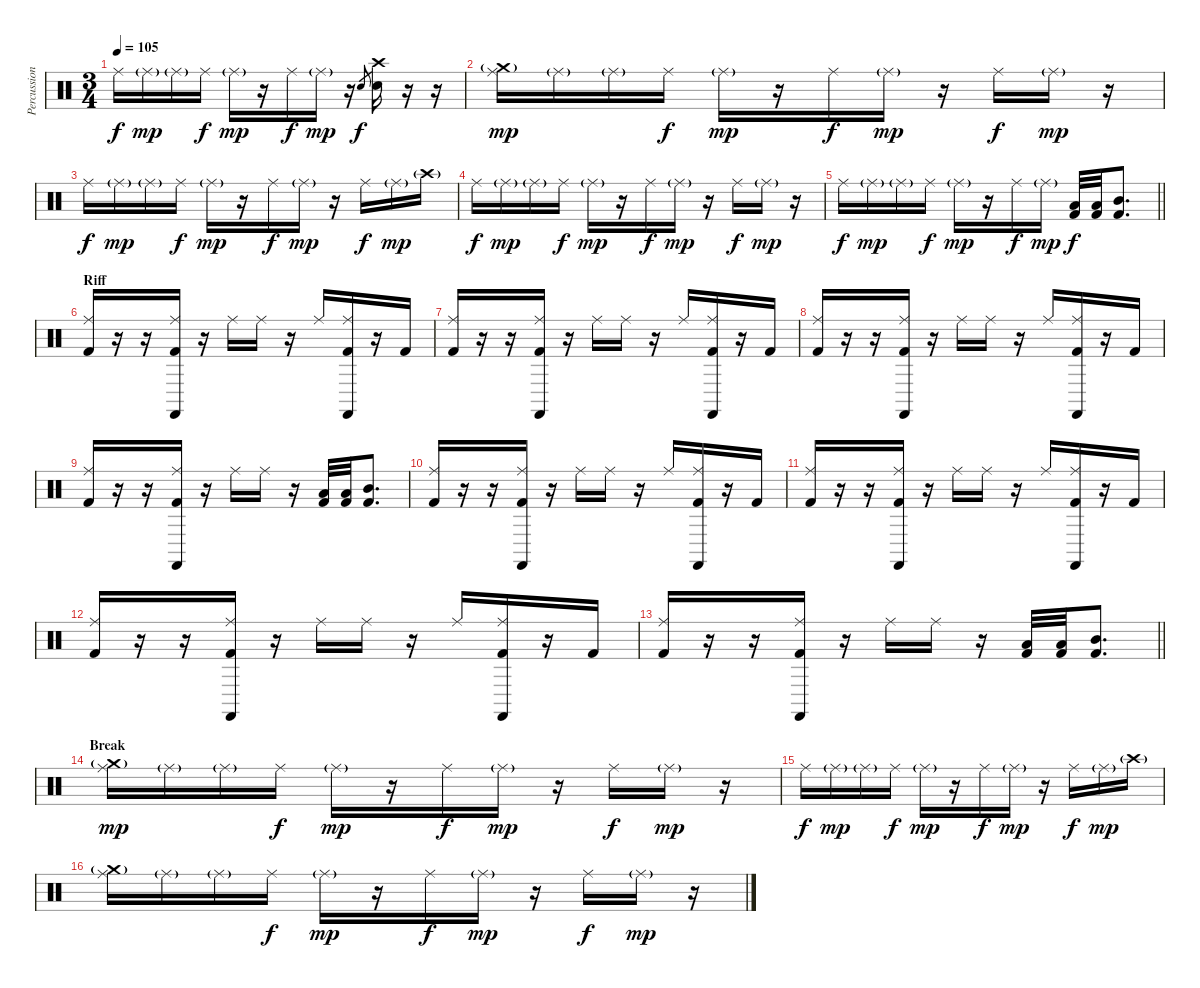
\track ("Percussion" "Percussion") {instrument percussion}
\staff {score}
\articulation defaults
\ts (3 4)
\tempo 105
\clef neutral
\ks c "Ride (middle)".16{dy f} "Ride (middle)"{g}.16{dy mp} "Ride (middle)"{g}.16 "Ride (middle)".16{dy f} "Ride (middle)"{g}.16{dy mp}
r.16 "Ride (middle)".16{dy f} "Ride (middle)"{g}.16{dy mp} r.16 "Electric Snare (hit)".8{gr dy f} ("Crash high (hit)" "Electric Snare (hit)").16 r.16 r.16 |
("Crash medium (hit)"{g} "Ride (middle)").16{dy mp} "Ride (middle)"{g}.16 "Ride (middle)"{g}.16 "Ride (middle)".16{dy f} "Ride (middle)"{g}.16{dy mp} r.16 "Ride (middle)".16{dy f} "Ride (middle)"{g}.16{dy mp} r.16 "Ride (middle)".16{dy f} "Ride (middle)"{g}.16{dy mp} r.16 |
"Ride (middle)".16{dy f} "Ride (middle)"{g}.16{dy mp} "Ride (middle)"{g}.16 "Ride (middle)".16{dy f} "Ride (middle)"{g}.16{dy mp} r.16 "Ride (middle)".16{dy f} "Ride (middle)"{g}.16{dy mp} r.16 "Ride (middle)".16{dy f} "Ride (middle)"{g}.16{dy mp} "Crash high (hit)"{g}.16 |
"Ride (middle)".16{dy f} "Ride (middle)"{g}.16{dy mp} "Ride (middle)"{g}.16 "Ride (middle)".16{dy f} "Ride (middle)"{g}.16{dy mp} r.16 "Ride (middle)".16{dy f} "Ride (middle)"{g}.16{dy mp} r.16 "Ride (middle)".16{dy f} "Ride (middle)"{g}.16{dy mp} r.16 |
\barLineRight lightlight "Ride (middle)".16{dy f} "Ride (middle)"{g}.16{dy mp} "Ride (middle)"{g}.16 "Ride (middle)".16{dy f} "Ride (middle)"{g}.16{dy mp}
r.16 "Ride (middle)".16{dy f} "Ride (middle)"{g}.16{dy mp} ("Low Tom (hit)" "Kick (hit) 2").32{dy f} ("Low Tom (hit)" "Kick (hit) 2").32 ("Mid Tom (hit)" "Kick (hit) 2").8{d} |
\section ("" "Riff")
("Ride (middle)" "Kick (hit) 2").16 r.16 r.16 ("Ride (middle)" "Castanets (hit)" "Kick (hit) 2").16 r.16 "Ride (middle)".16 "Ride (middle)".16 r.16 "Ride (middle)".16 ("Ride (middle)" "Castanets (hit)" "Kick (hit) 2").16 r.16 "Kick (hit) 2".16 |
("Ride (middle)" "Kick (hit) 2").16 r.16 r.16 ("Ride (middle)" "Castanets (hit)" "Kick (hit) 2").16 r.16 "Ride (middle)".16 "Ride (middle)".16 r.16 "Ride (middle)".16 ("Ride (middle)" "Castanets (hit)" "Kick (hit) 2").16 r.16 "Kick (hit) 2".16 |
("Ride (middle)" "Kick (hit) 2").16 r.16 r.16 ("Ride (middle)" "Castanets (hit)" "Kick (hit) 2").16 r.16 "Ride (middle)".16 "Ride (middle)".16 r.16 "Ride (middle)".16 ("Ride (middle)" "Castanets (hit)" "Kick (hit) 2").16 r.16 "Kick (hit) 2".16 |
("Ride (middle)" "Kick (hit) 2").16 r.16 r.16 ("Ride (middle)" "Castanets (hit)" "Kick (hit) 2").16 r.16 "Ride (middle)".16 "Ride (middle)".16 r.16 ("Low Tom (hit)" "Kick (hit) 2").32 ("Low Tom (hit)" "Kick (hit) 2").32 ("Mid Tom (hit)" "Kick (hit) 2").8{d} |
("Ride (middle)" "Kick (hit) 2").16 r.16 r.16 ("Ride (middle)" "Castanets (hit)" "Kick (hit) 2").16 r.16 "Ride (middle)".16 "Ride (middle)".16 r.16 "Ride (middle)".16 ("Ride (middle)" "Castanets (hit)" "Kick (hit) 2").16 r.16 "Kick (hit) 2".16 |
("Ride (middle)" "Kick (hit) 2").16 r.16 r.16 ("Ride (middle)" "Castanets (hit)" "Kick (hit) 2").16 r.16 "Ride (middle)".16 "Ride (middle)".16 r.16 "Ride (middle)".16 ("Ride (middle)" "Castanets (hit)" "Kick (hit) 2").16 r.16 "Kick (hit) 2".16 |
("Ride (middle)" "Kick (hit) 2").16 r.16 r.16 ("Ride (middle)" "Castanets (hit)" "Kick (hit) 2").16 r.16 "Ride (middle)".16 "Ride (middle)".16 r.16 "Ride (middle)".16 ("Ride (middle)" "Castanets (hit)" "Kick (hit) 2").16 r.16 "Kick (hit) 2".16 |
\barLineRight lightlight
("Ride (middle)" "Kick (hit) 2").16 r.16 r.16 ("Ride (middle)" "Castanets (hit)" "Kick (hit) 2").16 r.16 "Ride (middle)".16 "Ride (middle)".16 r.16 ("Low Tom (hit)" "Kick (hit) 2").32 ("Low Tom (hit)" "Kick (hit) 2").32 ("Mid Tom (hit)" "Kick (hit) 2").8{d} |
\section ("" "Break")
("Crash medium (hit)"{g} "Ride (middle)").16{dy mp} "Ride (middle)"{g}.16 "Ride (middle)"{g}.16 "Ride (middle)".16{dy f} "Ride (middle)"{g}.16{dy mp} r.16 "Ride (middle)".16{dy f} "Ride (middle)"{g}.16{dy mp} r.16 "Ride (middle)".16{dy f} "Ride (middle)"{g}.16{dy mp} r.16 |
"Ride (middle)".16{dy f} "Ride (middle)"{g}.16{dy mp} "Ride (middle)"{g}.16 "Ride (middle)".16{dy f} "Ride (middle)"{g}.16{dy mp} r.16 "Ride (middle)".16{dy f} "Ride (middle)"{g}.16{dy mp} r.16 "Ride (middle)".16{dy f} "Ride (middle)"{g}.16{dy mp} "Crash high (hit)"{g}.16 |
("Crash medium (hit)"{g} "Ride (middle)").16 "Ride (middle)"{g}.16 "Ride (middle)"{g}.16 "Ride (middle)".16{dy f} "Ride (middle)"{g}.16{dy mp} r.16 "Ride (middle)".16{dy f} "Ride (middle)"{g}.16{dy mp} r.16 "Ride (middle)".16{dy f} "Ride (middle)"{g}.16{dy mp} r.16
